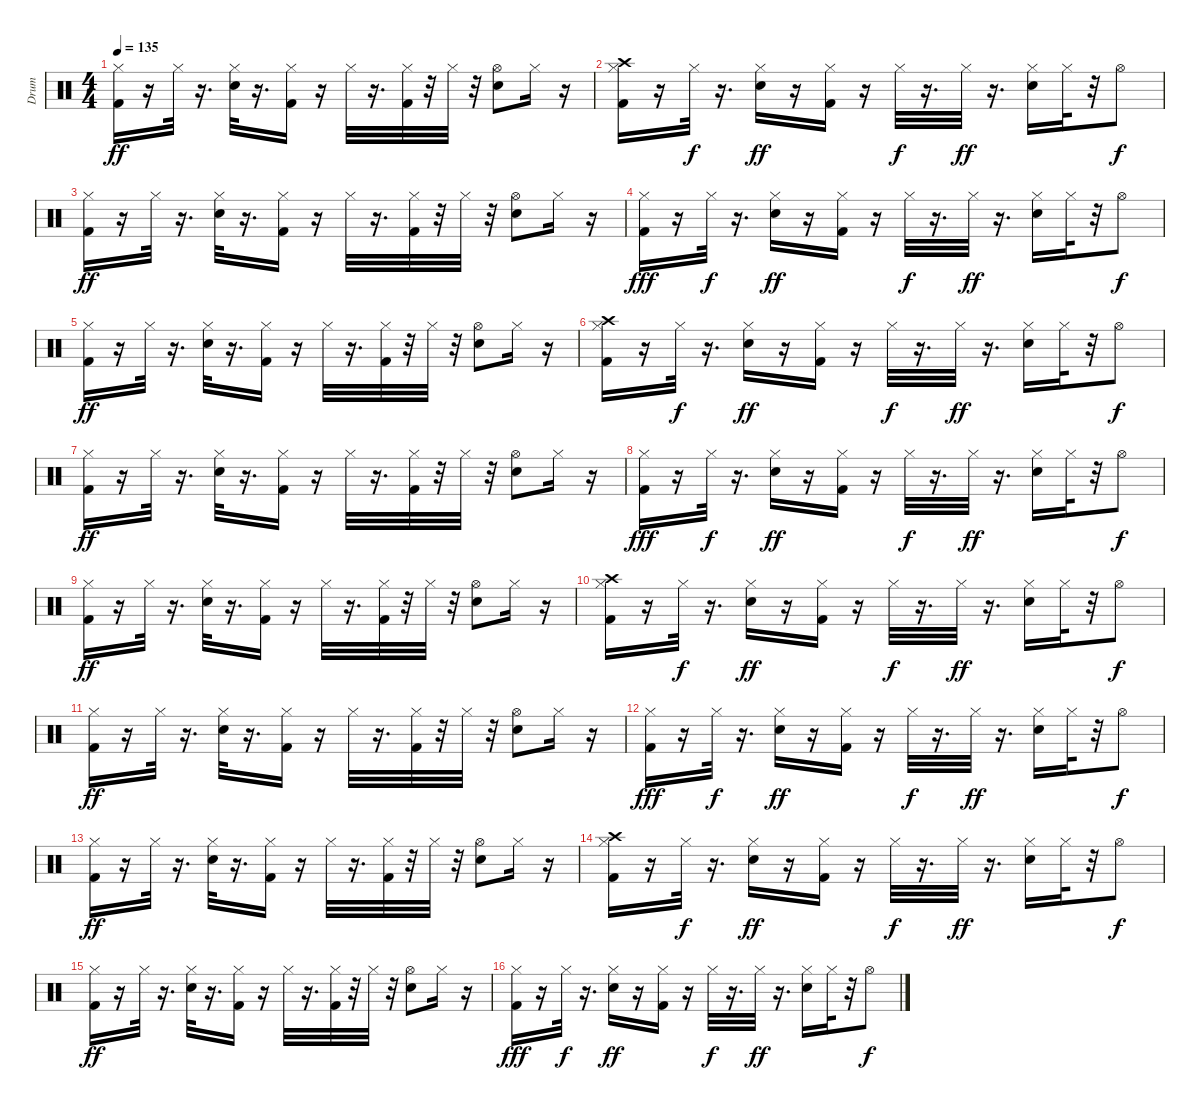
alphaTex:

\track ("Drum" "Drum") {instrument percussion}
\staff {score}
\articulation defaults
\ts (4 4)
\tempo 135
\clef neutral
\ks c
("Kick (hit) 2" "Hi-Hat (closed)").16{dy ff} r.16 "Hi-Hat (closed)".32 r.16{d} ("Snare (hit) 2" "Hi-Hat (closed)").32 r.16{d} ("Kick (hit) 2" "Hi-Hat (closed)").16 r.16 "Hi-Hat (closed)".32 r.16{d} ("Kick (hit) 2" "Hi-Hat (closed)").32 r.32 "Hi-Hat (closed)".32 r.32 ("Snare (hit) 2" "Hi-Hat (open)").8 "Hi-Hat (closed)".16 r.16 |
("Kick (hit) 2" "Hi-Hat (closed)" "Crash high (hit)").16 r.16 "Hi-Hat (closed)".32{dy f} r.16{d} ("Snare (hit) 2" "Hi-Hat (closed)").16{dy ff} r.16 ("Kick (hit) 2" "Hi-Hat (closed)").16 r.16 "Hi-Hat (closed)".32{dy f} r.16{d} "Hi-Hat (closed)".32{dy ff} r.16{d} ("Snare (hit) 2" "Hi-Hat (closed)").16 "Hi-Hat (closed)".32 r.32 "Hi-Hat (open)".8{dy f} |
("Kick (hit) 2" "Hi-Hat (closed)").16{dy ff} r.16 "Hi-Hat (closed)".32 r.16{d} ("Snare (hit) 2" "Hi-Hat (closed)").32 r.16{d} ("Kick (hit) 2" "Hi-Hat (closed)").16 r.16 "Hi-Hat (closed)".32 r.16{d} ("Kick (hit) 2" "Hi-Hat (closed)").32 r.32 "Hi-Hat (closed)".32 r.32 ("Snare (hit) 2" "Hi-Hat (open)").8 "Hi-Hat (closed)".16 r.16 |
("Kick (hit) 2" "Hi-Hat (closed)").16{dy fff} r.16 "Hi-Hat (closed)".32{dy f} r.16{d} ("Snare (hit) 2" "Hi-Hat (closed)").16{dy ff} r.16 ("Kick (hit) 2" "Hi-Hat (closed)").16 r.16 "Hi-Hat (closed)".32{dy f} r.16{d} "Hi-Hat (closed)".32{dy ff} r.16{d} ("Snare (hit) 2" "Hi-Hat (closed)").16 "Hi-Hat (closed)".32 r.32 "Hi-Hat (open)".8{dy f} |
("Kick (hit) 2" "Hi-Hat (closed)").16{dy ff} r.16 "Hi-Hat (closed)".32 r.16{d} ("Snare (hit) 2" "Hi-Hat (closed)").32 r.16{d} ("Kick (hit) 2" "Hi-Hat (closed)").16 r.16 "Hi-Hat (closed)".32 r.16{d} ("Kick (hit) 2" "Hi-Hat (closed)").32 r.32 "Hi-Hat (closed)".32 r.32 ("Snare (hit) 2" "Hi-Hat (open)").8 "Hi-Hat (closed)".16 r.16 |
("Kick (hit) 2" "Hi-Hat (closed)" "Crash high (hit)").16 r.16 "Hi-Hat (closed)".32{dy f} r.16{d} ("Snare (hit) 2" "Hi-Hat (closed)").16{dy ff} r.16 ("Kick (hit) 2" "Hi-Hat (closed)").16 r.16 "Hi-Hat (closed)".32{dy f} r.16{d} "Hi-Hat (closed)".32{dy ff} r.16{d} ("Snare (hit) 2" "Hi-Hat (closed)").16 "Hi-Hat (closed)".32 r.32 "Hi-Hat (open)".8{dy f} |
("Kick (hit) 2" "Hi-Hat (closed)").16{dy ff} r.16 "Hi-Hat (closed)".32 r.16{d} ("Snare (hit) 2" "Hi-Hat (closed)").32 r.16{d} ("Kick (hit) 2" "Hi-Hat (closed)").16 r.16 "Hi-Hat (closed)".32 r.16{d} ("Kick (hit) 2" "Hi-Hat (closed)").32 r.32 "Hi-Hat (closed)".32 r.32 ("Snare (hit) 2" "Hi-Hat (open)").8 "Hi-Hat (closed)".16 r.16 |
("Kick (hit) 2" "Hi-Hat (closed)").16{dy fff} r.16 "Hi-Hat (closed)".32{dy f} r.16{d} ("Snare (hit) 2" "Hi-Hat (closed)").16{dy ff} r.16 ("Kick (hit) 2" "Hi-Hat (closed)").16 r.16 "Hi-Hat (closed)".32{dy f} r.16{d} "Hi-Hat (closed)".32{dy ff} r.16{d} ("Snare (hit) 2" "Hi-Hat (closed)").16 "Hi-Hat (closed)".32 r.32 "Hi-Hat (open)".8{dy f} |
("Kick (hit) 2" "Hi-Hat (closed)").16{dy ff} r.16 "Hi-Hat (closed)".32 r.16{d} ("Snare (hit) 2" "Hi-Hat (closed)").32 r.16{d} ("Kick (hit) 2" "Hi-Hat (closed)").16 r.16 "Hi-Hat (closed)".32 r.16{d} ("Kick (hit) 2" "Hi-Hat (closed)").32 r.32 "Hi-Hat (closed)".32 r.32 ("Snare (hit) 2" "Hi-Hat (open)").8 "Hi-Hat (closed)".16 r.16 |
("Kick (hit) 2" "Hi-Hat (closed)" "Crash high (hit)").16 r.16 "Hi-Hat (closed)".32{dy f} r.16{d} ("Snare (hit) 2" "Hi-Hat (closed)").16{dy ff} r.16 ("Kick (hit) 2" "Hi-Hat (closed)").16 r.16 "Hi-Hat (closed)".32{dy f} r.16{d} "Hi-Hat (closed)".32{dy ff} r.16{d} ("Snare (hit) 2" "Hi-Hat (closed)").16 "Hi-Hat (closed)".32 r.32 "Hi-Hat (open)".8{dy f} |
("Kick (hit) 2" "Hi-Hat (closed)").16{dy ff} r.16 "Hi-Hat (closed)".32 r.16{d} ("Snare (hit) 2" "Hi-Hat (closed)").32 r.16{d} ("Kick (hit) 2" "Hi-Hat (closed)").16 r.16 "Hi-Hat (closed)".32 r.16{d} ("Kick (hit) 2" "Hi-Hat (closed)").32 r.32 "Hi-Hat (closed)".32 r.32 ("Snare (hit) 2" "Hi-Hat (open)").8 "Hi-Hat (closed)".16 r.16 |
("Kick (hit) 2" "Hi-Hat (closed)").16{dy fff} r.16 "Hi-Hat (closed)".32{dy f} r.16{d} ("Snare (hit) 2" "Hi-Hat (closed)").16{dy ff} r.16 ("Kick (hit) 2" "Hi-Hat (closed)").16 r.16 "Hi-Hat (closed)".32{dy f} r.16{d} "Hi-Hat (closed)".32{dy ff} r.16{d} ("Snare (hit) 2" "Hi-Hat (closed)").16 "Hi-Hat (closed)".32 r.32 "Hi-Hat (open)".8{dy f} |
("Kick (hit) 2" "Hi-Hat (closed)").16{dy ff} r.16 "Hi-Hat (closed)".32 r.16{d} ("Snare (hit) 2" "Hi-Hat (closed)").32 r.16{d} ("Kick (hit) 2" "Hi-Hat (closed)").16 r.16 "Hi-Hat (closed)".32 r.16{d} ("Kick (hit) 2" "Hi-Hat (closed)").32 r.32 "Hi-Hat (closed)".32 r.32 ("Snare (hit) 2" "Hi-Hat (open)").8 "Hi-Hat (closed)".16 r.16 |
("Kick (hit) 2" "Hi-Hat (closed)" "Crash high (hit)").16 r.16 "Hi-Hat (closed)".32{dy f} r.16{d} ("Snare (hit) 2" "Hi-Hat (closed)").16{dy ff} r.16 ("Kick (hit) 2" "Hi-Hat (closed)").16 r.16 "Hi-Hat (closed)".32{dy f} r.16{d} "Hi-Hat (closed)".32{dy ff} r.16{d} ("Snare (hit) 2" "Hi-Hat (closed)").16 "Hi-Hat (closed)".32 r.32 "Hi-Hat (open)".8{dy f} |
("Kick (hit) 2" "Hi-Hat (closed)").16{dy ff} r.16 "Hi-Hat (closed)".32 r.16{d} ("Snare (hit) 2" "Hi-Hat (closed)").32 r.16{d} ("Kick (hit) 2" "Hi-Hat (closed)").16 r.16 "Hi-Hat (closed)".32 r.16{d} ("Kick (hit) 2" "Hi-Hat (closed)").32 r.32 "Hi-Hat (closed)".32 r.32 ("Snare (hit) 2" "Hi-Hat (open)").8 "Hi-Hat (closed)".16 r.16 |
("Kick (hit) 2" "Hi-Hat (closed)").16{dy fff} r.16 "Hi-Hat (closed)".32{dy f} r.16{d} ("Snare (hit) 2" "Hi-Hat (closed)").16{dy ff} r.16 ("Kick (hit) 2" "Hi-Hat (closed)").16 r.16 "Hi-Hat (closed)".32{dy f} r.16{d} "Hi-Hat (closed)".32{dy ff} r.16{d} ("Snare (hit) 2" "Hi-Hat (closed)").16 "Hi-Hat (closed)".32 r.32 "Hi-Hat (open)".8{dy f}
